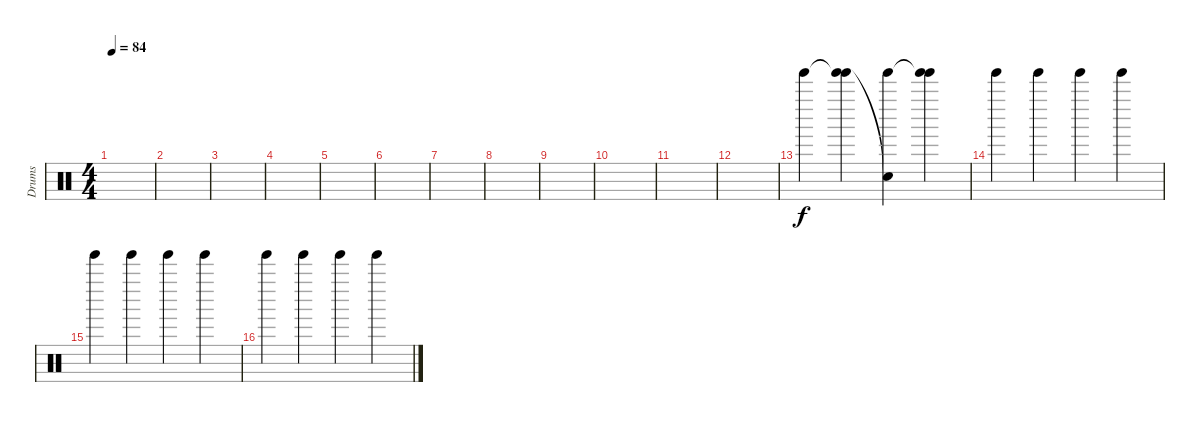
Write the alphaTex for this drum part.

\track ("Drums" "Drums") {instrument percussion}
\staff {score}
\articulation defaults
\ts (4 4)
\tempo 84
\clef neutral
\ks c
|
|
|
|
|
|
|
|
|
|
|
|
"Tinkle Bell (hit)".4{volume 2 balance 0} ("Tinkle Bell (hit)"{t} "Tinkle Bell (hit)").4 ("Tinkle Bell (hit)" "Snare (hit)"{t}).4 ("Tinkle Bell (hit)"{t} "Tinkle Bell (hit)").4 |
"Tinkle Bell (hit)".4 "Tinkle Bell (hit)".4 "Tinkle Bell (hit)".4 "Tinkle Bell (hit)".4 |
"Tinkle Bell (hit)".4 "Tinkle Bell (hit)".4 "Tinkle Bell (hit)".4 "Tinkle Bell (hit)".4 |
"Tinkle Bell (hit)".4 "Tinkle Bell (hit)".4 "Tinkle Bell (hit)".4 "Tinkle Bell (hit)".4
